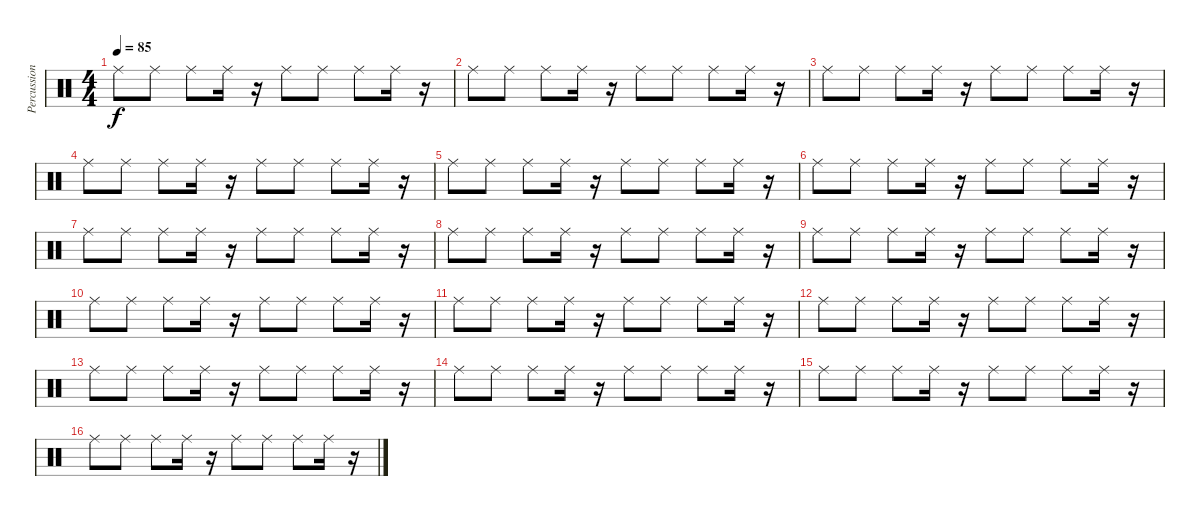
\track ("Percussion" "Percussion") {instrument percussion}
\staff {score}
\articulation defaults
\ts (4 4)
\tempo 85
\clef neutral
\ks c "Ride (middle)".8{dy f} "Ride (middle)".8 "Ride (middle)".8 "Ride (middle)".16
r.16 "Ride (middle)".8 "Ride (middle)".8 "Ride (middle)".8 "Ride (middle)".16 r.16 |
"Ride (middle)".8 "Ride (middle)".8 "Ride (middle)".8 "Ride (middle)".16 r.16 "Ride (middle)".8 "Ride (middle)".8 "Ride (middle)".8 "Ride (middle)".16 r.16 |
"Ride (middle)".8 "Ride (middle)".8 "Ride (middle)".8 "Ride (middle)".16 r.16 "Ride (middle)".8 "Ride (middle)".8 "Ride (middle)".8 "Ride (middle)".16 r.16 |
"Ride (middle)".8 "Ride (middle)".8 "Ride (middle)".8 "Ride (middle)".16 r.16 "Ride (middle)".8 "Ride (middle)".8 "Ride (middle)".8 "Ride (middle)".16 r.16 |
"Ride (middle)".8 "Ride (middle)".8 "Ride (middle)".8 "Ride (middle)".16 r.16 "Ride (middle)".8 "Ride (middle)".8 "Ride (middle)".8 "Ride (middle)".16 r.16 |
"Ride (middle)".8 "Ride (middle)".8 "Ride (middle)".8 "Ride (middle)".16 r.16 "Ride (middle)".8 "Ride (middle)".8 "Ride (middle)".8 "Ride (middle)".16 r.16 |
"Ride (middle)".8 "Ride (middle)".8 "Ride (middle)".8 "Ride (middle)".16 r.16 "Ride (middle)".8 "Ride (middle)".8 "Ride (middle)".8 "Ride (middle)".16 r.16 |
"Ride (middle)".8 "Ride (middle)".8 "Ride (middle)".8 "Ride (middle)".16 r.16 "Ride (middle)".8 "Ride (middle)".8 "Ride (middle)".8 "Ride (middle)".16 r.16 |
"Ride (middle)".8 "Ride (middle)".8 "Ride (middle)".8 "Ride (middle)".16 r.16 "Ride (middle)".8 "Ride (middle)".8 "Ride (middle)".8 "Ride (middle)".16 r.16 |
"Ride (middle)".8 "Ride (middle)".8 "Ride (middle)".8 "Ride (middle)".16 r.16 "Ride (middle)".8 "Ride (middle)".8 "Ride (middle)".8 "Ride (middle)".16 r.16 |
"Ride (middle)".8 "Ride (middle)".8 "Ride (middle)".8 "Ride (middle)".16 r.16 "Ride (middle)".8 "Ride (middle)".8 "Ride (middle)".8 "Ride (middle)".16 r.16 |
"Ride (middle)".8 "Ride (middle)".8 "Ride (middle)".8 "Ride (middle)".16 r.16 "Ride (middle)".8 "Ride (middle)".8 "Ride (middle)".8 "Ride (middle)".16 r.16 |
"Ride (middle)".8 "Ride (middle)".8 "Ride (middle)".8 "Ride (middle)".16 r.16 "Ride (middle)".8 "Ride (middle)".8 "Ride (middle)".8 "Ride (middle)".16 r.16 |
"Ride (middle)".8 "Ride (middle)".8 "Ride (middle)".8 "Ride (middle)".16 r.16 "Ride (middle)".8 "Ride (middle)".8 "Ride (middle)".8 "Ride (middle)".16 r.16 |
"Ride (middle)".8 "Ride (middle)".8 "Ride (middle)".8 "Ride (middle)".16 r.16 "Ride (middle)".8 "Ride (middle)".8 "Ride (middle)".8 "Ride (middle)".16 r.16 |
"Ride (middle)".8 "Ride (middle)".8 "Ride (middle)".8 "Ride (middle)".16 r.16 "Ride (middle)".8 "Ride (middle)".8 "Ride (middle)".8 "Ride (middle)".16 r.16
